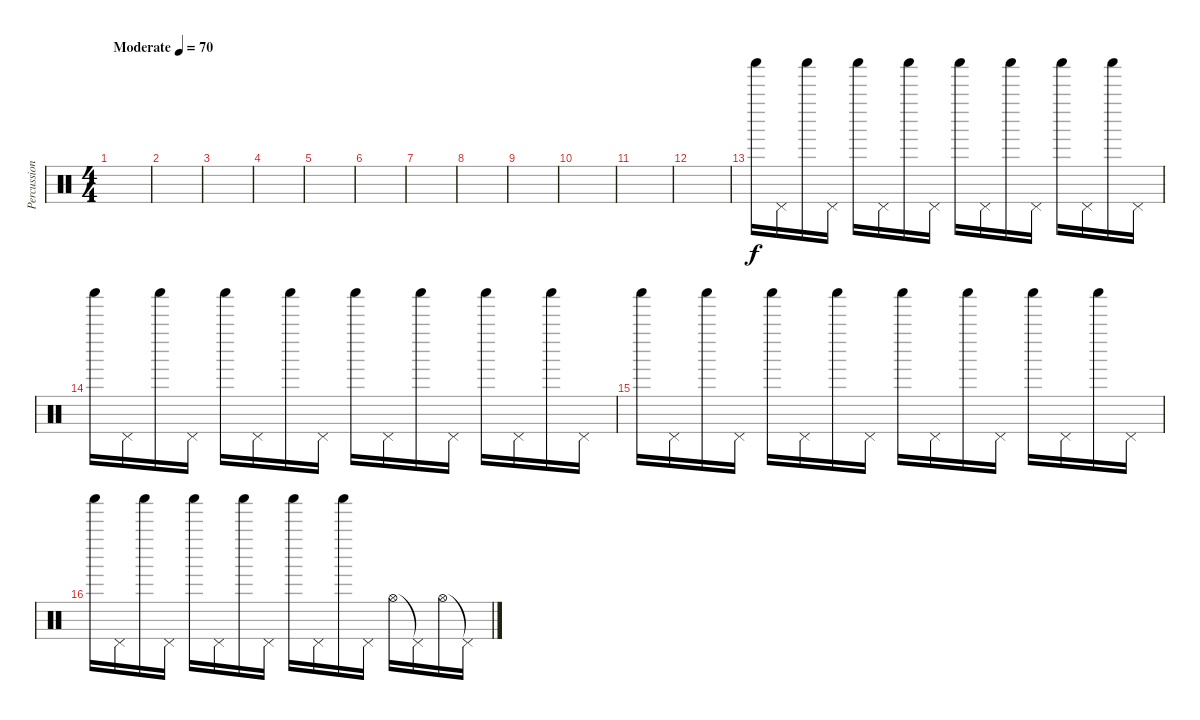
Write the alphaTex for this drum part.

\track ("Percussion 2" "Percussion") {instrument percussion}
\staff {score}
\articulation defaults
\ts (4 4)
\tempo (70 "Moderate")
\clef neutral
\ks c
|
|
|
|
|
|
|
|
|
|
|
|
"Shaker (hit)".16 "Pedal Hi-Hat (hit)".16 "Shaker (hit)".16 "Pedal Hi-Hat (hit)".16 "Shaker (hit)".16 "Pedal Hi-Hat (hit)".16 "Shaker (hit)".16 "Pedal Hi-Hat (hit)".16 "Shaker (hit)".16 "Pedal Hi-Hat (hit)".16 "Shaker (hit)".16 "Pedal Hi-Hat (hit)".16 "Shaker (hit)".16 "Pedal Hi-Hat (hit)".16 "Shaker (hit)".16 "Pedal Hi-Hat (hit)".16 |
"Shaker (hit)".16 "Pedal Hi-Hat (hit)".16 "Shaker (hit)".16 "Pedal Hi-Hat (hit)".16 "Shaker (hit)".16 "Pedal Hi-Hat (hit)".16 "Shaker (hit)".16 "Pedal Hi-Hat (hit)".16 "Shaker (hit)".16 "Pedal Hi-Hat (hit)".16 "Shaker (hit)".16 "Pedal Hi-Hat (hit)".16 "Shaker (hit)".16 "Pedal Hi-Hat (hit)".16 "Shaker (hit)".16 "Pedal Hi-Hat (hit)".16 |
"Shaker (hit)".16 "Pedal Hi-Hat (hit)".16 "Shaker (hit)".16 "Pedal Hi-Hat (hit)".16 "Shaker (hit)".16 "Pedal Hi-Hat (hit)".16 "Shaker (hit)".16 "Pedal Hi-Hat (hit)".16 "Shaker (hit)".16 "Pedal Hi-Hat (hit)".16 "Shaker (hit)".16 "Pedal Hi-Hat (hit)".16 "Shaker (hit)".16 "Pedal Hi-Hat (hit)".16 "Shaker (hit)".16 "Pedal Hi-Hat (hit)".16 |
"Shaker (hit)".16 "Pedal Hi-Hat (hit)".16 "Shaker (hit)".16 "Pedal Hi-Hat (hit)".16 "Shaker (hit)".16 "Pedal Hi-Hat (hit)".16 "Shaker (hit)".16 "Pedal Hi-Hat (hit)".16 "Shaker (hit)".16 "Pedal Hi-Hat (hit)".16 "Shaker (hit)".16 "Pedal Hi-Hat (hit)".16 "Hi-Hat (open)".16 "Pedal Hi-Hat (hit)"{t}.16 "Hi-Hat (open)".16 "Pedal Hi-Hat (hit)"{t}.16
